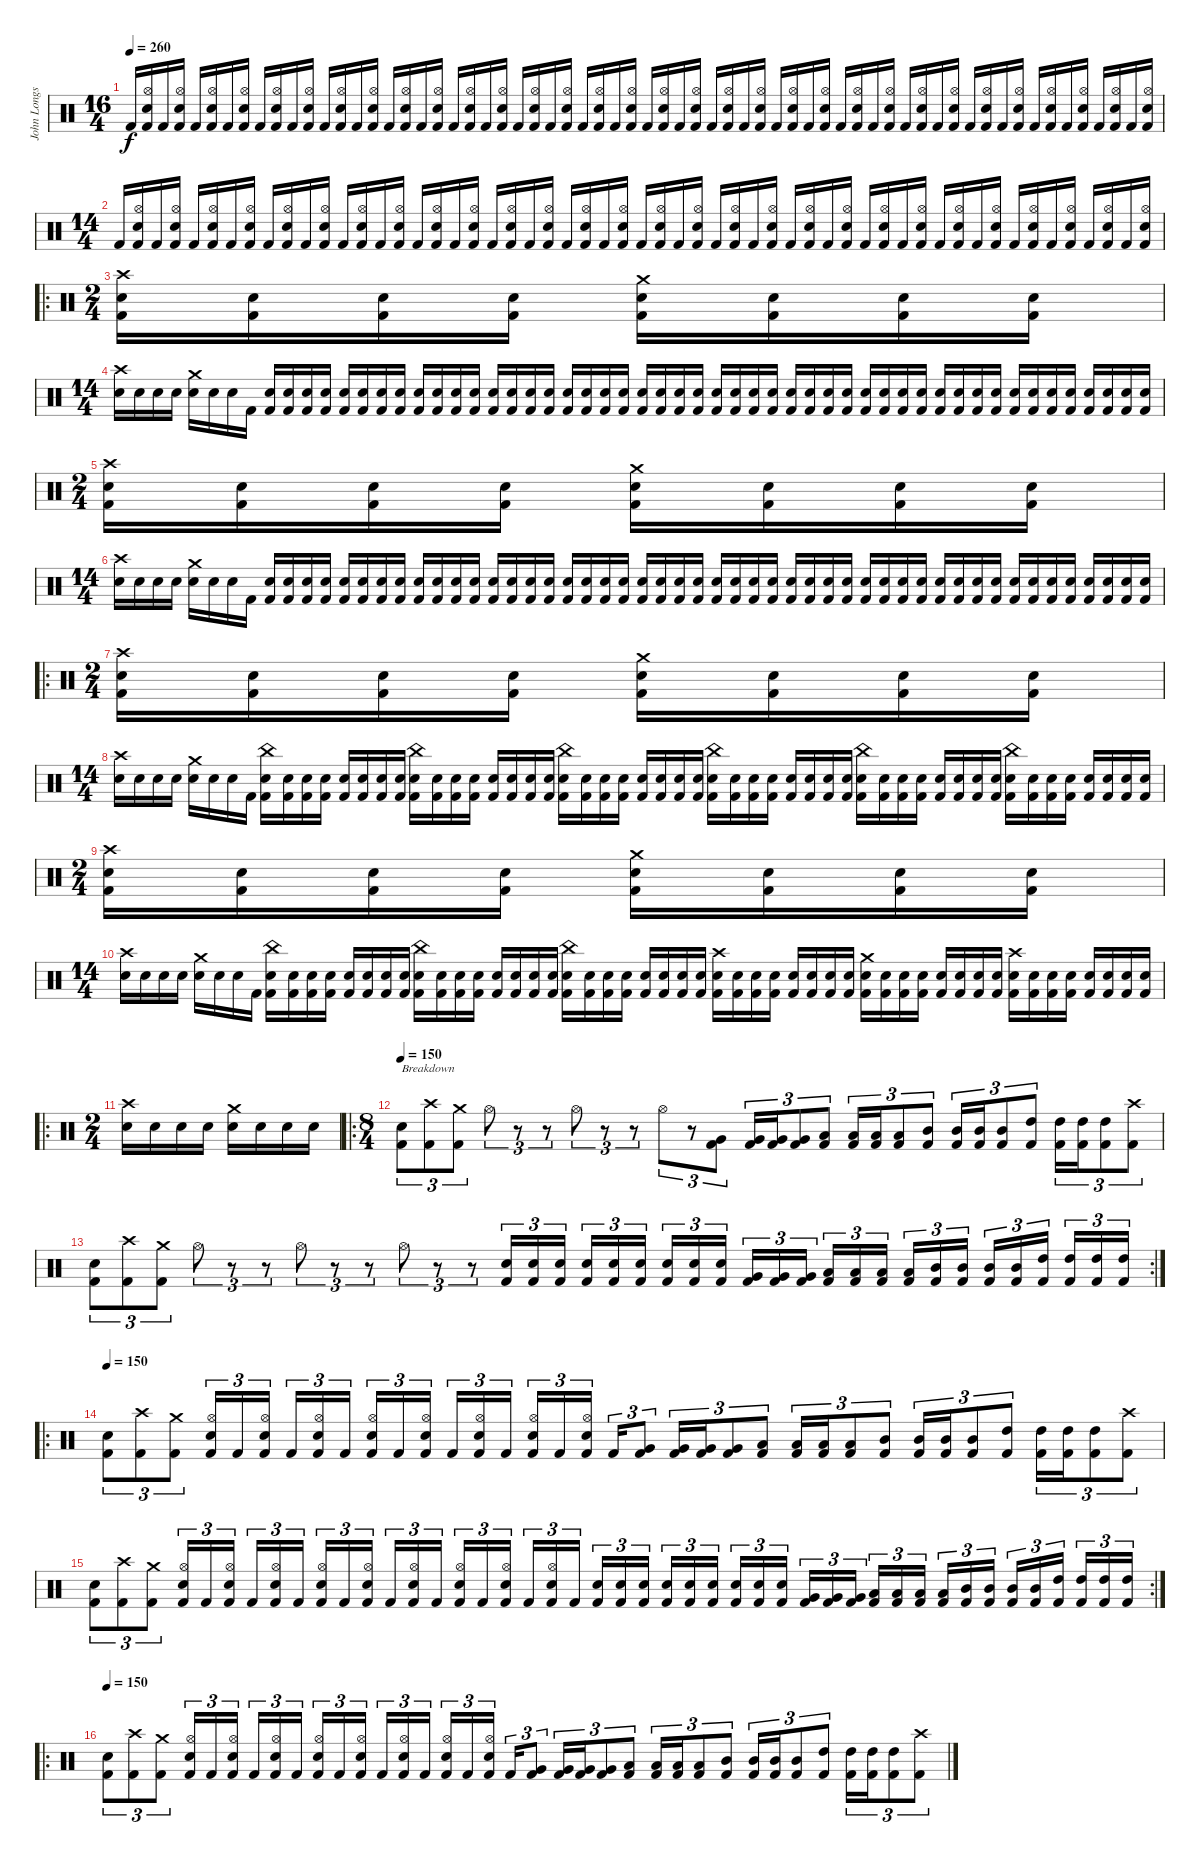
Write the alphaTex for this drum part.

\track ("John Longstreth" "John Longs") {instrument percussion}
\staff {score}
\articulation defaults
\ts (16 4)
\tempo 260
\clef neutral
\ks c "Kick (hit) 2".16{dy f}
("Hi-Hat (open)" "Electric Snare (hit)" "Kick (hit) 2").16 "Kick (hit) 2".16 ("Hi-Hat (open)" "Electric Snare (hit)" "Kick (hit) 2").16 "Kick (hit) 2".16 ("Hi-Hat (open)" "Electric Snare (hit)" "Kick (hit) 2").16 "Kick (hit) 2".16 ("Hi-Hat (open)" "Electric Snare (hit)" "Kick (hit) 2").16 "Kick (hit) 2".16 ("Hi-Hat (open)" "Electric Snare (hit)" "Kick (hit) 2").16 "Kick (hit) 2".16 ("Hi-Hat (open)" "Electric Snare (hit)" "Kick (hit) 2").16 "Kick (hit) 2".16 ("Hi-Hat (open)" "Electric Snare (hit)" "Kick (hit) 2").16 "Kick (hit) 2".16 ("Hi-Hat (open)" "Electric Snare (hit)" "Kick (hit) 2").16 "Kick (hit) 2".16 ("Hi-Hat (open)" "Electric Snare (hit)" "Kick (hit) 2").16 "Kick (hit) 2".16 ("Hi-Hat (open)" "Electric Snare (hit)" "Kick (hit) 2").16 "Kick (hit) 2".16 ("Hi-Hat (open)" "Electric Snare (hit)" "Kick (hit) 2").16 "Kick (hit) 2".16 ("Hi-Hat (open)" "Electric Snare (hit)" "Kick (hit) 2").16 "Kick (hit) 2".16 ("Hi-Hat (open)" "Electric Snare (hit)" "Kick (hit) 2").16 "Kick (hit) 2".16 ("Hi-Hat (open)" "Electric Snare (hit)" "Kick (hit) 2").16 "Kick (hit) 2".16 ("Hi-Hat (open)" "Electric Snare (hit)" "Kick (hit) 2").16 "Kick (hit) 2".16 ("Hi-Hat (open)" "Electric Snare (hit)" "Kick (hit) 2").16 "Kick (hit) 2".16 ("Hi-Hat (open)" "Electric Snare (hit)" "Kick (hit) 2").16 "Kick (hit) 2".16 ("Hi-Hat (open)" "Electric Snare (hit)" "Kick (hit) 2").16 "Kick (hit) 2".16 ("Hi-Hat (open)" "Electric Snare (hit)" "Kick (hit) 2").16 "Kick (hit) 2".16 ("Hi-Hat (open)" "Electric Snare (hit)" "Kick (hit) 2").16 "Kick (hit) 2".16 ("Hi-Hat (open)" "Electric Snare (hit)" "Kick (hit) 2").16 "Kick (hit) 2".16 ("Hi-Hat (open)" "Electric Snare (hit)" "Kick (hit) 2").16 "Kick (hit) 2".16 ("Hi-Hat (open)" "Electric Snare (hit)" "Kick (hit) 2").16 "Kick (hit) 2".16 ("Hi-Hat (open)" "Electric Snare (hit)" "Kick (hit) 2").16 "Kick (hit) 2".16 ("Hi-Hat (open)" "Electric Snare (hit)" "Kick (hit) 2").16 "Kick (hit) 2".16 ("Hi-Hat (open)" "Electric Snare (hit)" "Kick (hit) 2").16 "Kick (hit) 2".16 ("Hi-Hat (open)" "Electric Snare (hit)" "Kick (hit) 2").16 "Kick (hit) 2".16 ("Hi-Hat (open)" "Electric Snare (hit)" "Kick (hit) 2").16 "Kick (hit) 2".16 ("Hi-Hat (open)" "Electric Snare (hit)" "Kick (hit) 2").16 "Kick (hit) 2".16 ("Hi-Hat (open)" "Electric Snare (hit)" "Kick (hit) 2").16 "Kick (hit) 2".16 ("Hi-Hat (open)" "Electric Snare (hit)" "Kick (hit) 2").16 "Kick (hit) 2".16 ("Hi-Hat (open)" "Electric Snare (hit)" "Kick (hit) 2").16 |
\ts (14 4)
"Kick (hit) 2".16 ("Hi-Hat (open)" "Electric Snare (hit)" "Kick (hit) 2").16 "Kick (hit) 2".16 ("Hi-Hat (open)" "Electric Snare (hit)" "Kick (hit) 2").16 "Kick (hit) 2".16 ("Hi-Hat (open)" "Electric Snare (hit)" "Kick (hit) 2").16 "Kick (hit) 2".16 ("Hi-Hat (open)" "Electric Snare (hit)" "Kick (hit) 2").16 "Kick (hit) 2".16 ("Hi-Hat (open)" "Electric Snare (hit)" "Kick (hit) 2").16 "Kick (hit) 2".16 ("Hi-Hat (open)" "Electric Snare (hit)" "Kick (hit) 2").16 "Kick (hit) 2".16 ("Hi-Hat (open)" "Electric Snare (hit)" "Kick (hit) 2").16 "Kick (hit) 2".16 ("Hi-Hat (open)" "Electric Snare (hit)" "Kick (hit) 2").16 "Kick (hit) 2".16 ("Hi-Hat (open)" "Electric Snare (hit)" "Kick (hit) 2").16 "Kick (hit) 2".16 ("Hi-Hat (open)" "Electric Snare (hit)" "Kick (hit) 2").16 "Kick (hit) 2".16 ("Hi-Hat (open)" "Electric Snare (hit)" "Kick (hit) 2").16 "Kick (hit) 2".16 ("Hi-Hat (open)" "Electric Snare (hit)" "Kick (hit) 2").16 "Kick (hit) 2".16 ("Hi-Hat (open)" "Electric Snare (hit)" "Kick (hit) 2").16 "Kick (hit) 2".16 ("Hi-Hat (open)" "Electric Snare (hit)" "Kick (hit) 2").16 "Kick (hit) 2".16 ("Hi-Hat (open)" "Electric Snare (hit)" "Kick (hit) 2").16 "Kick (hit) 2".16 ("Hi-Hat (open)" "Electric Snare (hit)" "Kick (hit) 2").16 "Kick (hit) 2".16 ("Hi-Hat (open)" "Electric Snare (hit)" "Kick (hit) 2").16 "Kick (hit) 2".16 ("Hi-Hat (open)" "Electric Snare (hit)" "Kick (hit) 2").16 "Kick (hit) 2".16 ("Hi-Hat (open)" "Electric Snare (hit)" "Kick (hit) 2").16 "Kick (hit) 2".16 ("Hi-Hat (open)" "Electric Snare (hit)" "Kick (hit) 2").16 "Kick (hit) 2".16 ("Hi-Hat (open)" "Electric Snare (hit)" "Kick (hit) 2").16 "Kick (hit) 2".16 ("Hi-Hat (open)" "Electric Snare (hit)" "Kick (hit) 2").16 "Kick (hit) 2".16 ("Hi-Hat (open)" "Electric Snare (hit)" "Kick (hit) 2").16 "Kick (hit) 2".16 ("Hi-Hat (open)" "Electric Snare (hit)" "Kick (hit) 2").16 "Kick (hit) 2".16 ("Hi-Hat (open)" "Electric Snare (hit)" "Kick (hit) 2").16 "Kick (hit) 2".16 ("Hi-Hat (open)" "Electric Snare (hit)" "Kick (hit) 2").16 "Kick (hit) 2".16 ("Hi-Hat (open)" "Electric Snare (hit)" "Kick (hit) 2").16 "Kick (hit) 2".16 ("Hi-Hat (open)" "Electric Snare (hit)" "Kick (hit) 2").16 |
\ro
\ts (2 4)
("Crash high (hit)" "Electric Snare (hit)" "Kick (hit) 2").16 ("Electric Snare (hit)" "Kick (hit) 2").16 ("Electric Snare (hit)" "Kick (hit) 2").16 ("Electric Snare (hit)" "Kick (hit) 2").16 ("Crash medium (hit)" "Electric Snare (hit)" "Kick (hit) 2").16 ("Electric Snare (hit)" "Kick (hit) 2").16 ("Electric Snare (hit)" "Kick (hit) 2").16 ("Electric Snare (hit)" "Kick (hit) 2").16 |
\ts (14 4)
("Crash high (hit)" "Electric Snare (hit)").16 "Electric Snare (hit)".16 "Electric Snare (hit)".16 "Electric Snare (hit)".16 ("Crash medium (hit)" "Electric Snare (hit)").16 "Electric Snare (hit)".16 "Electric Snare (hit)".16 "Kick (hit) 2".16 ("Electric Snare (hit)" "Kick (hit) 2").16 ("Electric Snare (hit)" "Kick (hit) 2").16 ("Electric Snare (hit)" "Kick (hit) 2").16 ("Electric Snare (hit)" "Kick (hit) 2").16 ("Electric Snare (hit)" "Kick (hit) 2").16 ("Electric Snare (hit)" "Kick (hit) 2").16 ("Electric Snare (hit)" "Kick (hit) 2").16 ("Electric Snare (hit)" "Kick (hit) 2").16 ("Electric Snare (hit)" "Kick (hit) 2").16 ("Electric Snare (hit)" "Kick (hit) 2").16 ("Electric Snare (hit)" "Kick (hit) 2").16 ("Electric Snare (hit)" "Kick (hit) 2").16 ("Electric Snare (hit)" "Kick (hit) 2").16 ("Electric Snare (hit)" "Kick (hit) 2").16 ("Electric Snare (hit)" "Kick (hit) 2").16 ("Electric Snare (hit)" "Kick (hit) 2").16 ("Electric Snare (hit)" "Kick (hit) 2").16 ("Electric Snare (hit)" "Kick (hit) 2").16 ("Electric Snare (hit)" "Kick (hit) 2").16 ("Electric Snare (hit)" "Kick (hit) 2").16 ("Electric Snare (hit)" "Kick (hit) 2").16 ("Electric Snare (hit)" "Kick (hit) 2").16 ("Electric Snare (hit)" "Kick (hit) 2").16 ("Electric Snare (hit)" "Kick (hit) 2").16 ("Electric Snare (hit)" "Kick (hit) 2").16 ("Electric Snare (hit)" "Kick (hit) 2").16 ("Electric Snare (hit)" "Kick (hit) 2").16 ("Electric Snare (hit)" "Kick (hit) 2").16 ("Electric Snare (hit)" "Kick (hit) 2").16 ("Electric Snare (hit)" "Kick (hit) 2").16 ("Electric Snare (hit)" "Kick (hit) 2").16 ("Electric Snare (hit)" "Kick (hit) 2").16 ("Electric Snare (hit)" "Kick (hit) 2").16 ("Electric Snare (hit)" "Kick (hit) 2").16 ("Electric Snare (hit)" "Kick (hit) 2").16 ("Electric Snare (hit)" "Kick (hit) 2").16 ("Electric Snare (hit)" "Kick (hit) 2").16 ("Electric Snare (hit)" "Kick (hit) 2").16 ("Electric Snare (hit)" "Kick (hit) 2").16 ("Electric Snare (hit)" "Kick (hit) 2").16 ("Electric Snare (hit)" "Kick (hit) 2").16 ("Electric Snare (hit)" "Kick (hit) 2").16 ("Electric Snare (hit)" "Kick (hit) 2").16 ("Electric Snare (hit)" "Kick (hit) 2").16 ("Electric Snare (hit)" "Kick (hit) 2").16 ("Electric Snare (hit)" "Kick (hit) 2").16 ("Electric Snare (hit)" "Kick (hit) 2").16 ("Electric Snare (hit)" "Kick (hit) 2").16 |
\ts (2 4)
("Crash high (hit)" "Electric Snare (hit)" "Kick (hit) 2").16 ("Electric Snare (hit)" "Kick (hit) 2").16 ("Electric Snare (hit)" "Kick (hit) 2").16 ("Electric Snare (hit)" "Kick (hit) 2").16 ("Crash medium (hit)" "Electric Snare (hit)" "Kick (hit) 2").16 ("Electric Snare (hit)" "Kick (hit) 2").16 ("Electric Snare (hit)" "Kick (hit) 2").16 ("Electric Snare (hit)" "Kick (hit) 2").16 |
\ts (14 4)
("Crash high (hit)" "Electric Snare (hit)").16 "Electric Snare (hit)".16 "Electric Snare (hit)".16 "Electric Snare (hit)".16 ("Crash medium (hit)" "Electric Snare (hit)").16 "Electric Snare (hit)".16 "Electric Snare (hit)".16 "Kick (hit) 2".16 ("Electric Snare (hit)" "Kick (hit) 2").16 ("Electric Snare (hit)" "Kick (hit) 2").16 ("Electric Snare (hit)" "Kick (hit) 2").16 ("Electric Snare (hit)" "Kick (hit) 2").16 ("Electric Snare (hit)" "Kick (hit) 2").16 ("Electric Snare (hit)" "Kick (hit) 2").16 ("Electric Snare (hit)" "Kick (hit) 2").16 ("Electric Snare (hit)" "Kick (hit) 2").16 ("Electric Snare (hit)" "Kick (hit) 2").16 ("Electric Snare (hit)" "Kick (hit) 2").16 ("Electric Snare (hit)" "Kick (hit) 2").16 ("Electric Snare (hit)" "Kick (hit) 2").16 ("Electric Snare (hit)" "Kick (hit) 2").16 ("Electric Snare (hit)" "Kick (hit) 2").16 ("Electric Snare (hit)" "Kick (hit) 2").16 ("Electric Snare (hit)" "Kick (hit) 2").16 ("Electric Snare (hit)" "Kick (hit) 2").16 ("Electric Snare (hit)" "Kick (hit) 2").16 ("Electric Snare (hit)" "Kick (hit) 2").16 ("Electric Snare (hit)" "Kick (hit) 2").16 ("Electric Snare (hit)" "Kick (hit) 2").16 ("Electric Snare (hit)" "Kick (hit) 2").16 ("Electric Snare (hit)" "Kick (hit) 2").16 ("Electric Snare (hit)" "Kick (hit) 2").16 ("Electric Snare (hit)" "Kick (hit) 2").16 ("Electric Snare (hit)" "Kick (hit) 2").16 ("Electric Snare (hit)" "Kick (hit) 2").16 ("Electric Snare (hit)" "Kick (hit) 2").16 ("Electric Snare (hit)" "Kick (hit) 2").16 ("Electric Snare (hit)" "Kick (hit) 2").16 ("Electric Snare (hit)" "Kick (hit) 2").16 ("Electric Snare (hit)" "Kick (hit) 2").16 ("Electric Snare (hit)" "Kick (hit) 2").16 ("Electric Snare (hit)" "Kick (hit) 2").16 ("Electric Snare (hit)" "Kick (hit) 2").16 ("Electric Snare (hit)" "Kick (hit) 2").16 ("Electric Snare (hit)" "Kick (hit) 2").16 ("Electric Snare (hit)" "Kick (hit) 2").16 ("Electric Snare (hit)" "Kick (hit) 2").16 ("Electric Snare (hit)" "Kick (hit) 2").16 ("Electric Snare (hit)" "Kick (hit) 2").16 ("Electric Snare (hit)" "Kick (hit) 2").16 ("Electric Snare (hit)" "Kick (hit) 2").16 ("Electric Snare (hit)" "Kick (hit) 2").16 ("Electric Snare (hit)" "Kick (hit) 2").16 ("Electric Snare (hit)" "Kick (hit) 2").16 ("Electric Snare (hit)" "Kick (hit) 2").16 ("Electric Snare (hit)" "Kick (hit) 2").16 |
\ro
\ts (2 4)
("Crash high (hit)" "Electric Snare (hit)" "Kick (hit) 2").16 ("Electric Snare (hit)" "Kick (hit) 2").16 ("Electric Snare (hit)" "Kick (hit) 2").16 ("Electric Snare (hit)" "Kick (hit) 2").16 ("Crash medium (hit)" "Electric Snare (hit)" "Kick (hit) 2").16 ("Electric Snare (hit)" "Kick (hit) 2").16 ("Electric Snare (hit)" "Kick (hit) 2").16 ("Electric Snare (hit)" "Kick (hit) 2").16 |
\ts (14 4)
("Crash high (hit)" "Electric Snare (hit)").16 "Electric Snare (hit)".16 "Electric Snare (hit)".16 "Electric Snare (hit)".16 ("Crash medium (hit)" "Electric Snare (hit)").16 "Electric Snare (hit)".16 "Electric Snare (hit)".16 "Kick (hit) 2".16 ("China (hit)" "Electric Snare (hit)" "Kick (hit) 2").16 ("Electric Snare (hit)" "Kick (hit) 2").16 ("Electric Snare (hit)" "Kick (hit) 2").16 ("Electric Snare (hit)" "Kick (hit) 2").16 ("Electric Snare (hit)" "Kick (hit) 2").16 ("Electric Snare (hit)" "Kick (hit) 2").16 ("Electric Snare (hit)" "Kick (hit) 2").16 ("Electric Snare (hit)" "Kick (hit) 2").16 ("China (hit)" "Electric Snare (hit)" "Kick (hit) 2").16 ("Electric Snare (hit)" "Kick (hit) 2").16 ("Electric Snare (hit)" "Kick (hit) 2").16 ("Electric Snare (hit)" "Kick (hit) 2").16 ("Electric Snare (hit)" "Kick (hit) 2").16 ("Electric Snare (hit)" "Kick (hit) 2").16 ("Electric Snare (hit)" "Kick (hit) 2").16 ("Electric Snare (hit)" "Kick (hit) 2").16 ("China (hit)" "Electric Snare (hit)" "Kick (hit) 2").16 ("Electric Snare (hit)" "Kick (hit) 2").16 ("Electric Snare (hit)" "Kick (hit) 2").16 ("Electric Snare (hit)" "Kick (hit) 2").16 ("Electric Snare (hit)" "Kick (hit) 2").16 ("Electric Snare (hit)" "Kick (hit) 2").16 ("Electric Snare (hit)" "Kick (hit) 2").16 ("Electric Snare (hit)" "Kick (hit) 2").16 ("China (hit)" "Electric Snare (hit)" "Kick (hit) 2").16 ("Electric Snare (hit)" "Kick (hit) 2").16 ("Electric Snare (hit)" "Kick (hit) 2").16 ("Electric Snare (hit)" "Kick (hit) 2").16 ("Electric Snare (hit)" "Kick (hit) 2").16 ("Electric Snare (hit)" "Kick (hit) 2").16 ("Electric Snare (hit)" "Kick (hit) 2").16 ("Electric Snare (hit)" "Kick (hit) 2").16 ("China (hit)" "Electric Snare (hit)" "Kick (hit) 2").16 ("Electric Snare (hit)" "Kick (hit) 2").16 ("Electric Snare (hit)" "Kick (hit) 2").16 ("Electric Snare (hit)" "Kick (hit) 2").16 ("Electric Snare (hit)" "Kick (hit) 2").16 ("Electric Snare (hit)" "Kick (hit) 2").16 ("Electric Snare (hit)" "Kick (hit) 2").16 ("Electric Snare (hit)" "Kick (hit) 2").16 ("China (hit)" "Electric Snare (hit)" "Kick (hit) 2").16 ("Electric Snare (hit)" "Kick (hit) 2").16 ("Electric Snare (hit)" "Kick (hit) 2").16 ("Electric Snare (hit)" "Kick (hit) 2").16 ("Electric Snare (hit)" "Kick (hit) 2").16 ("Electric Snare (hit)" "Kick (hit) 2").16 ("Electric Snare (hit)" "Kick (hit) 2").16 ("Electric Snare (hit)" "Kick (hit) 2").16 |
\ts (2 4)
("Crash high (hit)" "Electric Snare (hit)" "Kick (hit) 2").16 ("Electric Snare (hit)" "Kick (hit) 2").16 ("Electric Snare (hit)" "Kick (hit) 2").16 ("Electric Snare (hit)" "Kick (hit) 2").16 ("Crash medium (hit)" "Electric Snare (hit)" "Kick (hit) 2").16 ("Electric Snare (hit)" "Kick (hit) 2").16 ("Electric Snare (hit)" "Kick (hit) 2").16 ("Electric Snare (hit)" "Kick (hit) 2").16 |
\ts (14 4)
("Crash high (hit)" "Electric Snare (hit)").16 "Electric Snare (hit)".16 "Electric Snare (hit)".16 "Electric Snare (hit)".16 ("Crash medium (hit)" "Electric Snare (hit)").16 "Electric Snare (hit)".16 "Electric Snare (hit)".16 "Kick (hit) 2".16 ("China (hit)" "Electric Snare (hit)" "Kick (hit) 2").16 ("Electric Snare (hit)" "Kick (hit) 2").16 ("Electric Snare (hit)" "Kick (hit) 2").16 ("Electric Snare (hit)" "Kick (hit) 2").16 ("Electric Snare (hit)" "Kick (hit) 2").16 ("Electric Snare (hit)" "Kick (hit) 2").16 ("Electric Snare (hit)" "Kick (hit) 2").16 ("Electric Snare (hit)" "Kick (hit) 2").16 ("China (hit)" "Electric Snare (hit)" "Kick (hit) 2").16 ("Electric Snare (hit)" "Kick (hit) 2").16 ("Electric Snare (hit)" "Kick (hit) 2").16 ("Electric Snare (hit)" "Kick (hit) 2").16 ("Electric Snare (hit)" "Kick (hit) 2").16 ("Electric Snare (hit)" "Kick (hit) 2").16 ("Electric Snare (hit)" "Kick (hit) 2").16 ("Electric Snare (hit)" "Kick (hit) 2").16 ("China (hit)" "Electric Snare (hit)" "Kick (hit) 2").16 ("Electric Snare (hit)" "Kick (hit) 2").16 ("Electric Snare (hit)" "Kick (hit) 2").16 ("Electric Snare (hit)" "Kick (hit) 2").16 ("Electric Snare (hit)" "Kick (hit) 2").16 ("Electric Snare (hit)" "Kick (hit) 2").16 ("Electric Snare (hit)" "Kick (hit) 2").16 ("Electric Snare (hit)" "Kick (hit) 2").16 ("Crash high (hit)" "Electric Snare (hit)" "Kick (hit) 2").16 ("Electric Snare (hit)" "Kick (hit) 2").16 ("Electric Snare (hit)" "Kick (hit) 2").16 ("Electric Snare (hit)" "Kick (hit) 2").16 ("Electric Snare (hit)" "Kick (hit) 2").16 ("Electric Snare (hit)" "Kick (hit) 2").16 ("Electric Snare (hit)" "Kick (hit) 2").16 ("Electric Snare (hit)" "Kick (hit) 2").16 ("Crash medium (hit)" "Electric Snare (hit)" "Kick (hit) 2").16 ("Electric Snare (hit)" "Kick (hit) 2").16 ("Electric Snare (hit)" "Kick (hit) 2").16 ("Electric Snare (hit)" "Kick (hit) 2").16 ("Electric Snare (hit)" "Kick (hit) 2").16 ("Electric Snare (hit)" "Kick (hit) 2").16 ("Electric Snare (hit)" "Kick (hit) 2").16 ("Electric Snare (hit)" "Kick (hit) 2").16 ("Crash high (hit)" "Electric Snare (hit)" "Kick (hit) 2").16 ("Electric Snare (hit)" "Kick (hit) 2").16 ("Electric Snare (hit)" "Kick (hit) 2").16 ("Electric Snare (hit)" "Kick (hit) 2").16 ("Electric Snare (hit)" "Kick (hit) 2").16 ("Electric Snare (hit)" "Kick (hit) 2").16 ("Electric Snare (hit)" "Kick (hit) 2").16 ("Electric Snare (hit)" "Kick (hit) 2").16 |
\ro
\ts (2 4)
("Crash high (hit)" "Electric Snare (hit)").16 "Electric Snare (hit)".16 "Electric Snare (hit)".16 "Electric Snare (hit)".16 ("Crash medium (hit)" "Electric Snare (hit)").16 "Electric Snare (hit)".16 "Electric Snare (hit)".16 "Electric Snare (hit)".16 |
\ro
\ts (8 4)
\tempo 150
("Electric Snare (hit)" "Kick (hit) 2").8{tu (3 2) txt "Breakdown"} ("Crash high (hit)" "Kick (hit) 2").8{tu (3 2)} ("Crash medium (hit)" "Kick (hit) 2").8{tu (3 2)} "Hi-Hat (open)".8{tu (3 2)} r.8{tu (3 2)} r.8{tu (3 2)} "Hi-Hat (open)".8{tu (3 2)} r.8{tu (3 2)} r.8{tu (3 2)} "Hi-Hat (open)".8{tu (3 2)} r.8{tu (3 2)} ("Very Low Tom (hit)" "Kick (hit) 2").8{tu (3 2)} ("Very Low Tom (hit)" "Kick (hit) 2").16{tu (3 2)} ("Very Low Tom (hit)" "Kick (hit) 2").16{tu (3 2)} ("Very Low Tom (hit)" "Kick (hit) 2").8{tu (3 2)} ("Low Tom (hit)" "Kick (hit) 2").8{tu (3 2)} ("Low Tom (hit)" "Kick (hit) 2").16{tu (3 2)} ("Low Tom (hit)" "Kick (hit) 2").16{tu (3 2)} ("Low Tom (hit)" "Kick (hit) 2").8{tu (3 2)} ("Mid Tom (hit)" "Kick (hit) 2").8{tu (3 2)} ("Mid Tom (hit)" "Kick (hit) 2").16{tu (3 2)} ("Mid Tom (hit)" "Kick (hit) 2").16{tu (3 2)} ("Mid Tom (hit)" "Kick (hit) 2").8{tu (3 2)} ("High Tom (hit)" "Kick (hit) 2").8{tu (3 2)} ("High Tom (hit)" "Kick (hit) 2").16{tu (3 2)} ("High Tom (hit)" "Kick (hit) 2").16{tu (3 2)} ("High Tom (hit)" "Kick (hit) 2").8{tu (3 2)} ("Crash high (hit)" "Kick (hit) 2").8{tu (3 2)} |
\rc 2
("Electric Snare (hit)" "Kick (hit) 2").8{tu (3 2)} ("Crash high (hit)" "Kick (hit) 2").8{tu (3 2)} ("Crash medium (hit)" "Kick (hit) 2").8{tu (3 2)} "Hi-Hat (open)".8{tu (3 2)} r.8{tu (3 2)} r.8{tu (3 2)} "Hi-Hat (open)".8{tu (3 2)} r.8{tu (3 2)} r.8{tu (3 2)} "Hi-Hat (open)".8{tu (3 2)} r.8{tu (3 2)} r.8{tu (3 2)} ("Electric Snare (hit)" "Kick (hit) 2").16{tu (3 2)} ("Electric Snare (hit)" "Kick (hit) 2").16{tu (3 2)} ("Electric Snare (hit)" "Kick (hit) 2").16{tu (3 2) beam splitsecondary} ("Electric Snare (hit)" "Kick (hit) 2").16{tu (3 2)} ("Electric Snare (hit)" "Kick (hit) 2").16{tu (3 2)} ("Electric Snare (hit)" "Kick (hit) 2").16{tu (3 2)} ("Electric Snare (hit)" "Kick (hit) 2").16{tu (3 2)} ("Electric Snare (hit)" "Kick (hit) 2").16{tu (3 2)} ("Electric Snare (hit)" "Kick (hit) 2").16{tu (3 2) beam splitsecondary} ("Very Low Tom (hit)" "Kick (hit) 2").16{tu (3 2)} ("Very Low Tom (hit)" "Kick (hit) 2").16{tu (3 2)} ("Very Low Tom (hit)" "Kick (hit) 2").16{tu (3 2)} ("Low Tom (hit)" "Kick (hit) 2").16{tu (3 2)} ("Low Tom (hit)" "Kick (hit) 2").16{tu (3 2)} ("Low Tom (hit)" "Kick (hit) 2").16{tu (3 2) beam splitsecondary} ("Low Tom (hit)" "Kick (hit) 2").16{tu (3 2)} ("Mid Tom (hit)" "Kick (hit) 2").16{tu (3 2)} ("Mid Tom (hit)" "Kick (hit) 2").16{tu (3 2)} ("Mid Tom (hit)" "Kick (hit) 2").16{tu (3 2)} ("Mid Tom (hit)" "Kick (hit) 2").16{tu (3 2)} ("High Tom (hit)" "Kick (hit) 2").16{tu (3 2) beam splitsecondary} ("High Tom (hit)" "Kick (hit) 2").16{tu (3 2)} ("High Tom (hit)" "Kick (hit) 2").16{tu (3 2)} ("High Tom (hit)" "Kick (hit) 2").16{tu (3 2)} |
\ro
\tempo 150
("Electric Snare (hit)" "Kick (hit) 2").8{tu (3 2)} ("Crash high (hit)" "Kick (hit) 2").8{tu (3 2)} ("Crash medium (hit)" "Kick (hit) 2").8{tu (3 2)} ("Hi-Hat (open)" "Electric Snare (hit)" "Kick (hit) 2").16{tu (3 2)} "Kick (hit) 2".16{tu (3 2)} ("Hi-Hat (open)" "Electric Snare (hit)" "Kick (hit) 2").16{tu (3 2) beam splitsecondary} "Kick (hit) 2".16{tu (3 2)} ("Hi-Hat (open)" "Electric Snare (hit)" "Kick (hit) 2").16{tu (3 2)} "Kick (hit) 2".16{tu (3 2)} ("Hi-Hat (open)" "Electric Snare (hit)" "Kick (hit) 2").16{tu (3 2)} "Kick (hit) 2".16{tu (3 2)} ("Hi-Hat (open)" "Electric Snare (hit)" "Kick (hit) 2").16{tu (3 2) beam splitsecondary} "Kick (hit) 2".16{tu (3 2)} ("Hi-Hat (open)" "Electric Snare (hit)" "Kick (hit) 2").16{tu (3 2)} "Kick (hit) 2".16{tu (3 2)} ("Hi-Hat (open)" "Electric Snare (hit)" "Kick (hit) 2").16{tu (3 2)} "Kick (hit) 2".16{tu (3 2)} ("Hi-Hat (open)" "Electric Snare (hit)" "Kick (hit) 2").16{tu (3 2) beam splitsecondary} "Kick (hit) 2".16{tu (3 2)} ("Very Low Tom (hit)" "Kick (hit) 2").8{tu (3 2)} ("Very Low Tom (hit)" "Kick (hit) 2").16{tu (3 2)} ("Very Low Tom (hit)" "Kick (hit) 2").16{tu (3 2)} ("Very Low Tom (hit)" "Kick (hit) 2").8{tu (3 2)} ("Low Tom (hit)" "Kick (hit) 2").8{tu (3 2)} ("Low Tom (hit)" "Kick (hit) 2").16{tu (3 2)} ("Low Tom (hit)" "Kick (hit) 2").16{tu (3 2)} ("Low Tom (hit)" "Kick (hit) 2").8{tu (3 2)} ("Mid Tom (hit)" "Kick (hit) 2").8{tu (3 2)} ("Mid Tom (hit)" "Kick (hit) 2").16{tu (3 2)} ("Mid Tom (hit)" "Kick (hit) 2").16{tu (3 2)} ("Mid Tom (hit)" "Kick (hit) 2").8{tu (3 2)} ("High Tom (hit)" "Kick (hit) 2").8{tu (3 2)} ("High Tom (hit)" "Kick (hit) 2").16{tu (3 2)} ("High Tom (hit)" "Kick (hit) 2").16{tu (3 2)} ("High Tom (hit)" "Kick (hit) 2").8{tu (3 2)} ("Crash high (hit)" "Kick (hit) 2").8{tu (3 2)} |
\rc 2
("Electric Snare (hit)" "Kick (hit) 2").8{tu (3 2)} ("Crash high (hit)" "Kick (hit) 2").8{tu (3 2)} ("Crash medium (hit)" "Kick (hit) 2").8{tu (3 2)} ("Hi-Hat (open)" "Electric Snare (hit)" "Kick (hit) 2").16{tu (3 2)} "Kick (hit) 2".16{tu (3 2)} ("Hi-Hat (open)" "Electric Snare (hit)" "Kick (hit) 2").16{tu (3 2) beam splitsecondary} "Kick (hit) 2".16{tu (3 2)} ("Hi-Hat (open)" "Electric Snare (hit)" "Kick (hit) 2").16{tu (3 2)} "Kick (hit) 2".16{tu (3 2)} ("Hi-Hat (open)" "Electric Snare (hit)" "Kick (hit) 2").16{tu (3 2)} "Kick (hit) 2".16{tu (3 2)} ("Hi-Hat (open)" "Electric Snare (hit)" "Kick (hit) 2").16{tu (3 2) beam splitsecondary} "Kick (hit) 2".16{tu (3 2)} ("Hi-Hat (open)" "Electric Snare (hit)" "Kick (hit) 2").16{tu (3 2)} "Kick (hit) 2".16{tu (3 2)} ("Hi-Hat (open)" "Electric Snare (hit)" "Kick (hit) 2").16{tu (3 2)} "Kick (hit) 2".16{tu (3 2)} ("Hi-Hat (open)" "Electric Snare (hit)" "Kick (hit) 2").16{tu (3 2) beam splitsecondary} "Kick (hit) 2".16{tu (3 2)} ("Hi-Hat (open)" "Electric Snare (hit)" "Kick (hit) 2").16{tu (3 2)} "Kick (hit) 2".16{tu (3 2)} ("Electric Snare (hit)" "Kick (hit) 2").16{tu (3 2)} ("Electric Snare (hit)" "Kick (hit) 2").16{tu (3 2)} ("Electric Snare (hit)" "Kick (hit) 2").16{tu (3 2) beam splitsecondary} ("Electric Snare (hit)" "Kick (hit) 2").16{tu (3 2)} ("Electric Snare (hit)" "Kick (hit) 2").16{tu (3 2)} ("Electric Snare (hit)" "Kick (hit) 2").16{tu (3 2)} ("Electric Snare (hit)" "Kick (hit) 2").16{tu (3 2)} ("Electric Snare (hit)" "Kick (hit) 2").16{tu (3 2)} ("Electric Snare (hit)" "Kick (hit) 2").16{tu (3 2) beam splitsecondary} ("Very Low Tom (hit)" "Kick (hit) 2").16{tu (3 2)} ("Very Low Tom (hit)" "Kick (hit) 2").16{tu (3 2)} ("Very Low Tom (hit)" "Kick (hit) 2").16{tu (3 2)} ("Low Tom (hit)" "Kick (hit) 2").16{tu (3 2)} ("Low Tom (hit)" "Kick (hit) 2").16{tu (3 2)} ("Low Tom (hit)" "Kick (hit) 2").16{tu (3 2) beam splitsecondary} ("Low Tom (hit)" "Kick (hit) 2").16{tu (3 2)} ("Mid Tom (hit)" "Kick (hit) 2").16{tu (3 2)} ("Mid Tom (hit)" "Kick (hit) 2").16{tu (3 2)} ("Mid Tom (hit)" "Kick (hit) 2").16{tu (3 2)} ("Mid Tom (hit)" "Kick (hit) 2").16{tu (3 2)} ("High Tom (hit)" "Kick (hit) 2").16{tu (3 2) beam splitsecondary} ("High Tom (hit)" "Kick (hit) 2").16{tu (3 2)} ("High Tom (hit)" "Kick (hit) 2").16{tu (3 2)} ("High Tom (hit)" "Kick (hit) 2").16{tu (3 2)} |
\ro
\tempo 150
("Electric Snare (hit)" "Kick (hit) 2").8{tu (3 2)} ("Crash high (hit)" "Kick (hit) 2").8{tu (3 2)} ("Crash medium (hit)" "Kick (hit) 2").8{tu (3 2)} ("Hi-Hat (open)" "Electric Snare (hit)" "Kick (hit) 2").16{tu (3 2)} "Kick (hit) 2".16{tu (3 2)} ("Hi-Hat (open)" "Electric Snare (hit)" "Kick (hit) 2").16{tu (3 2) beam splitsecondary} "Kick (hit) 2".16{tu (3 2)} ("Hi-Hat (open)" "Electric Snare (hit)" "Kick (hit) 2").16{tu (3 2)} "Kick (hit) 2".16{tu (3 2)} ("Hi-Hat (open)" "Electric Snare (hit)" "Kick (hit) 2").16{tu (3 2)} "Kick (hit) 2".16{tu (3 2)} ("Hi-Hat (open)" "Electric Snare (hit)" "Kick (hit) 2").16{tu (3 2) beam splitsecondary} "Kick (hit) 2".16{tu (3 2)} ("Hi-Hat (open)" "Electric Snare (hit)" "Kick (hit) 2").16{tu (3 2)} "Kick (hit) 2".16{tu (3 2)} ("Hi-Hat (open)" "Electric Snare (hit)" "Kick (hit) 2").16{tu (3 2)} "Kick (hit) 2".16{tu (3 2)} ("Hi-Hat (open)" "Electric Snare (hit)" "Kick (hit) 2").16{tu (3 2) beam splitsecondary} "Kick (hit) 2".16{tu (3 2)} ("Very Low Tom (hit)" "Kick (hit) 2").8{tu (3 2)} ("Very Low Tom (hit)" "Kick (hit) 2").16{tu (3 2)} ("Very Low Tom (hit)" "Kick (hit) 2").16{tu (3 2)} ("Very Low Tom (hit)" "Kick (hit) 2").8{tu (3 2)} ("Low Tom (hit)" "Kick (hit) 2").8{tu (3 2)} ("Low Tom (hit)" "Kick (hit) 2").16{tu (3 2)} ("Low Tom (hit)" "Kick (hit) 2").16{tu (3 2)} ("Low Tom (hit)" "Kick (hit) 2").8{tu (3 2)} ("Mid Tom (hit)" "Kick (hit) 2").8{tu (3 2)} ("Mid Tom (hit)" "Kick (hit) 2").16{tu (3 2)} ("Mid Tom (hit)" "Kick (hit) 2").16{tu (3 2)} ("Mid Tom (hit)" "Kick (hit) 2").8{tu (3 2)} ("High Tom (hit)" "Kick (hit) 2").8{tu (3 2)} ("High Tom (hit)" "Kick (hit) 2").16{tu (3 2)} ("High Tom (hit)" "Kick (hit) 2").16{tu (3 2)} ("High Tom (hit)" "Kick (hit) 2").8{tu (3 2)} ("Crash high (hit)" "Kick (hit) 2").8{tu (3 2)}
